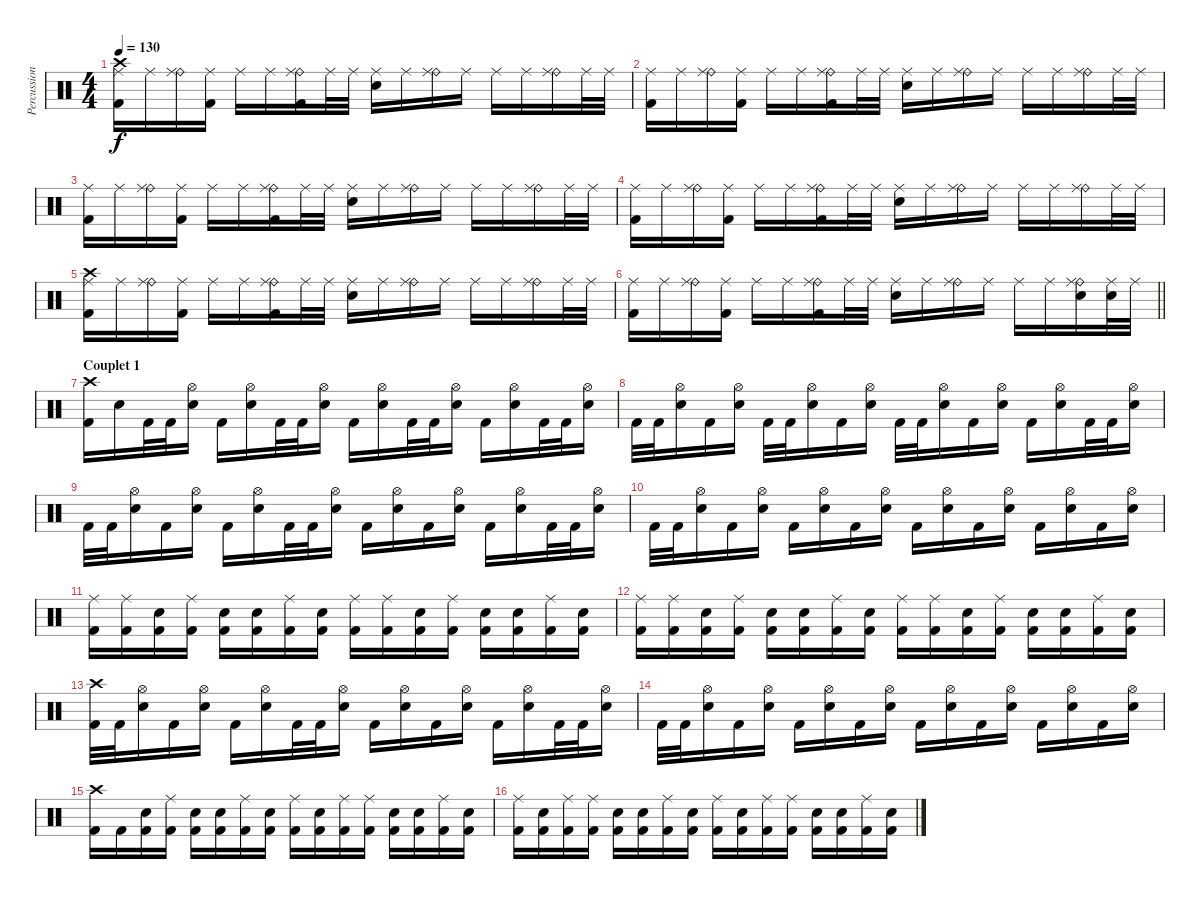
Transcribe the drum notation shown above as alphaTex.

\track ("Percussions" "Percussion") {instrument percussion}
\staff {score}
\articulation defaults
\ts (4 4)
\tempo 130
\clef neutral
\ks c
("Crash high (hit)" "Ride (middle)" "Kick (hit) 2").16{dy f} "Ride (middle)".16 ("Ride (bell)" "Ride (middle)").16 ("Ride (middle)" "Kick (hit) 2").16 "Ride (middle)".16 "Ride (middle)".16 ("Ride (bell)" "Ride (middle)" "Kick (hit) 2").16 "Ride (middle)".32 "Ride (middle)".32 ("Ride (middle)" "Electric Snare (hit)").16 "Ride (middle)".16 ("Ride (bell)" "Ride (middle)").16 "Ride (middle)".16 "Ride (middle)".16 "Ride (middle)".16 ("Ride (bell)" "Ride (middle)").16 "Ride (middle)".32 "Ride (middle)".32 |
("Ride (middle)" "Kick (hit) 2").16 "Ride (middle)".16 ("Ride (bell)" "Ride (middle)").16 ("Ride (middle)" "Kick (hit) 2").16 "Ride (middle)".16 "Ride (middle)".16 ("Ride (bell)" "Ride (middle)" "Kick (hit) 2").16 "Ride (middle)".32 "Ride (middle)".32 ("Ride (middle)" "Electric Snare (hit)").16 "Ride (middle)".16 ("Ride (bell)" "Ride (middle)").16 "Ride (middle)".16 "Ride (middle)".16 "Ride (middle)".16 ("Ride (bell)" "Ride (middle)").16 "Ride (middle)".32 "Ride (middle)".32 |
("Ride (middle)" "Kick (hit) 2").16 "Ride (middle)".16 ("Ride (bell)" "Ride (middle)").16 ("Ride (middle)" "Kick (hit) 2").16 "Ride (middle)".16 "Ride (middle)".16 ("Ride (bell)" "Ride (middle)" "Kick (hit) 2").16 "Ride (middle)".32 "Ride (middle)".32 ("Ride (middle)" "Electric Snare (hit)").16 "Ride (middle)".16 ("Ride (bell)" "Ride (middle)").16 "Ride (middle)".16 "Ride (middle)".16 "Ride (middle)".16 ("Ride (bell)" "Ride (middle)").16 "Ride (middle)".32 "Ride (middle)".32 |
("Ride (middle)" "Kick (hit) 2").16 "Ride (middle)".16 ("Ride (bell)" "Ride (middle)").16 ("Ride (middle)" "Kick (hit) 2").16 "Ride (middle)".16 "Ride (middle)".16 ("Ride (bell)" "Ride (middle)" "Kick (hit) 2").16 "Ride (middle)".32 "Ride (middle)".32 ("Ride (middle)" "Electric Snare (hit)").16 "Ride (middle)".16 ("Ride (bell)" "Ride (middle)").16 "Ride (middle)".16 "Ride (middle)".16 "Ride (middle)".16 ("Ride (bell)" "Ride (middle)").16 "Ride (middle)".32 "Ride (middle)".32 |
("Crash high (hit)" "Ride (middle)" "Kick (hit) 2").16 "Ride (middle)".16 ("Ride (bell)" "Ride (middle)").16 ("Ride (middle)" "Kick (hit) 2").16 "Ride (middle)".16 "Ride (middle)".16 ("Ride (bell)" "Ride (middle)" "Kick (hit) 2").16 "Ride (middle)".32 "Ride (middle)".32 ("Ride (middle)" "Electric Snare (hit)").16 "Ride (middle)".16 ("Ride (bell)" "Ride (middle)").16 "Ride (middle)".16 "Ride (middle)".16 "Ride (middle)".16 ("Ride (bell)" "Ride (middle)").16 "Ride (middle)".32 "Ride (middle)".32 |
\barLineRight lightlight
("Ride (middle)" "Kick (hit) 2").16 "Ride (middle)".16 ("Ride (bell)" "Ride (middle)").16 ("Ride (middle)" "Kick (hit) 2").16 "Ride (middle)".16 "Ride (middle)".16 ("Ride (bell)" "Ride (middle)" "Kick (hit) 2").16 "Ride (middle)".32 "Ride (middle)".32 ("Ride (middle)" "Electric Snare (hit)").16 "Ride (middle)".16 ("Ride (bell)" "Ride (middle)").16 "Ride (middle)".16 "Ride (middle)".16 "Ride (middle)".16 ("Ride (bell)" "Ride (middle)" "Electric Snare (hit)").16 ("Ride (middle)" "Electric Snare (hit)").32 "Ride (middle)".32 |
\section ("" "Couplet 1")
("Crash high (hit)" "Kick (hit) 2").16 "Electric Snare (hit)".16 "Kick (hit) 2".32 "Kick (hit) 2".32 ("Hi-Hat (open)" "Electric Snare (hit)").16 "Kick (hit) 2".16 ("Hi-Hat (open)" "Electric Snare (hit)").16 "Kick (hit) 2".32 "Kick (hit) 2".32 ("Hi-Hat (open)" "Electric Snare (hit)").16 "Kick (hit) 2".16 ("Hi-Hat (open)" "Electric Snare (hit)").16 "Kick (hit) 2".32 "Kick (hit) 2".32 ("Hi-Hat (open)" "Electric Snare (hit)").16 "Kick (hit) 2".16 ("Hi-Hat (open)" "Electric Snare (hit)").16 "Kick (hit) 2".32 "Kick (hit) 2".32 ("Hi-Hat (open)" "Electric Snare (hit)").16 |
"Kick (hit) 2".32 "Kick (hit) 2".32 ("Hi-Hat (open)" "Electric Snare (hit)").16 "Kick (hit) 2".16 ("Hi-Hat (open)" "Electric Snare (hit)").16 "Kick (hit) 2".32 "Kick (hit) 2".32 ("Hi-Hat (open)" "Electric Snare (hit)").16 "Kick (hit) 2".16 ("Hi-Hat (open)" "Electric Snare (hit)").16 "Kick (hit) 2".32 "Kick (hit) 2".32 ("Hi-Hat (open)" "Electric Snare (hit)").16 "Kick (hit) 2".16 ("Hi-Hat (open)" "Electric Snare (hit)").16 "Kick (hit) 2".16 ("Hi-Hat (open)" "Electric Snare (hit)").16 "Kick (hit) 2".32 "Kick (hit) 2".32 ("Hi-Hat (open)" "Electric Snare (hit)").16 |
"Kick (hit) 2".32 "Kick (hit) 2".32 ("Hi-Hat (open)" "Electric Snare (hit)").16 "Kick (hit) 2".16 ("Hi-Hat (open)" "Electric Snare (hit)").16 "Kick (hit) 2".16 ("Hi-Hat (open)" "Electric Snare (hit)").16 "Kick (hit) 2".32 "Kick (hit) 2".32 ("Hi-Hat (open)" "Electric Snare (hit)").16 "Kick (hit) 2".16 ("Hi-Hat (open)" "Electric Snare (hit)").16 "Kick (hit) 2".16 ("Hi-Hat (open)" "Electric Snare (hit)").16 "Kick (hit) 2".16 ("Hi-Hat (open)" "Electric Snare (hit)").16 "Kick (hit) 2".32 "Kick (hit) 2".32 ("Hi-Hat (open)" "Electric Snare (hit)").16 |
"Kick (hit) 2".32 "Kick (hit) 2".32 ("Hi-Hat (open)" "Electric Snare (hit)").16 "Kick (hit) 2".16 ("Hi-Hat (open)" "Electric Snare (hit)").16 "Kick (hit) 2".16 ("Hi-Hat (open)" "Electric Snare (hit)").16 "Kick (hit) 2".16 ("Hi-Hat (open)" "Electric Snare (hit)").16 "Kick (hit) 2".16 ("Hi-Hat (open)" "Electric Snare (hit)").16 "Kick (hit) 2".16 ("Hi-Hat (open)" "Electric Snare (hit)").16 "Kick (hit) 2".16 ("Hi-Hat (open)" "Electric Snare (hit)").16 "Kick (hit) 2".16 ("Hi-Hat (open)" "Electric Snare (hit)").16 |
("Ride (middle)" "Kick (hit) 2").16 ("Ride (middle)" "Kick (hit) 2").16 ("Electric Snare (hit)" "Kick (hit) 2").16 ("Ride (middle)" "Kick (hit) 2").16 ("Electric Snare (hit)" "Kick (hit) 2").16 ("Electric Snare (hit)" "Kick (hit) 2").16 ("Ride (middle)" "Kick (hit) 2").16 ("Electric Snare (hit)" "Kick (hit) 2").16 ("Ride (middle)" "Kick (hit) 2").16 ("Ride (middle)" "Kick (hit) 2").16 ("Electric Snare (hit)" "Kick (hit) 2").16 ("Ride (middle)" "Kick (hit) 2").16 ("Electric Snare (hit)" "Kick (hit) 2").16 ("Electric Snare (hit)" "Kick (hit) 2").16 ("Ride (middle)" "Kick (hit) 2").16 ("Electric Snare (hit)" "Kick (hit) 2").16 |
("Ride (middle)" "Kick (hit) 2").16 ("Ride (middle)" "Kick (hit) 2").16 ("Electric Snare (hit)" "Kick (hit) 2").16 ("Ride (middle)" "Kick (hit) 2").16 ("Electric Snare (hit)" "Kick (hit) 2").16 ("Electric Snare (hit)" "Kick (hit) 2").16 ("Ride (middle)" "Kick (hit) 2").16 ("Electric Snare (hit)" "Kick (hit) 2").16 ("Ride (middle)" "Kick (hit) 2").16 ("Ride (middle)" "Kick (hit) 2").16 ("Electric Snare (hit)" "Kick (hit) 2").16 ("Ride (middle)" "Kick (hit) 2").16 ("Electric Snare (hit)" "Kick (hit) 2").16 ("Electric Snare (hit)" "Kick (hit) 2").16 ("Ride (middle)" "Kick (hit) 2").16 ("Electric Snare (hit)" "Kick (hit) 2").16 |
("Crash high (hit)" "Kick (hit) 2").32 "Kick (hit) 2".32 ("Hi-Hat (open)" "Electric Snare (hit)").16 "Kick (hit) 2".16 ("Hi-Hat (open)" "Electric Snare (hit)").16 "Kick (hit) 2".16 ("Hi-Hat (open)" "Electric Snare (hit)").16 "Kick (hit) 2".32 "Kick (hit) 2".32 ("Hi-Hat (open)" "Electric Snare (hit)").16 "Kick (hit) 2".16 ("Hi-Hat (open)" "Electric Snare (hit)").16 "Kick (hit) 2".16 ("Hi-Hat (open)" "Electric Snare (hit)").16 "Kick (hit) 2".16 ("Hi-Hat (open)" "Electric Snare (hit)").16 "Kick (hit) 2".32 "Kick (hit) 2".32 ("Hi-Hat (open)" "Electric Snare (hit)").16 |
"Kick (hit) 2".32 "Kick (hit) 2".32 ("Hi-Hat (open)" "Electric Snare (hit)").16 "Kick (hit) 2".16 ("Hi-Hat (open)" "Electric Snare (hit)").16 "Kick (hit) 2".16 ("Hi-Hat (open)" "Electric Snare (hit)").16 "Kick (hit) 2".16 ("Hi-Hat (open)" "Electric Snare (hit)").16 "Kick (hit) 2".16 ("Hi-Hat (open)" "Electric Snare (hit)").16 "Kick (hit) 2".16 ("Hi-Hat (open)" "Electric Snare (hit)").16 "Kick (hit) 2".16 ("Hi-Hat (open)" "Electric Snare (hit)").16 "Kick (hit) 2".16 ("Hi-Hat (open)" "Electric Snare (hit)").16 |
("Crash high (hit)" "Kick (hit) 2").16 "Kick (hit) 2".16 ("Electric Snare (hit)" "Kick (hit) 2").16 ("Ride (middle)" "Kick (hit) 2").16 ("Electric Snare (hit)" "Kick (hit) 2").16 ("Electric Snare (hit)" "Kick (hit) 2").16 ("Ride (middle)" "Kick (hit) 2").16 ("Electric Snare (hit)" "Kick (hit) 2").16 ("Ride (middle)" "Kick (hit) 2").16 ("Electric Snare (hit)" "Kick (hit) 2").16 ("Ride (middle)" "Kick (hit) 2").16 ("Ride (middle)" "Kick (hit) 2").16 ("Electric Snare (hit)" "Kick (hit) 2").16 ("Electric Snare (hit)" "Kick (hit) 2").16 ("Ride (middle)" "Kick (hit) 2").16 ("Electric Snare (hit)" "Kick (hit) 2").16 |
("Ride (middle)" "Kick (hit) 2").16 ("Electric Snare (hit)" "Kick (hit) 2").16 ("Ride (middle)" "Kick (hit) 2").16 ("Ride (middle)" "Kick (hit) 2").16 ("Electric Snare (hit)" "Kick (hit) 2").16 ("Electric Snare (hit)" "Kick (hit) 2").16 ("Ride (middle)" "Kick (hit) 2").16 ("Electric Snare (hit)" "Kick (hit) 2").16 ("Ride (middle)" "Kick (hit) 2").16 ("Electric Snare (hit)" "Kick (hit) 2").16 ("Ride (middle)" "Kick (hit) 2").16 ("Ride (middle)" "Kick (hit) 2").16 ("Electric Snare (hit)" "Kick (hit) 2").16 ("Electric Snare (hit)" "Kick (hit) 2").16 ("Ride (middle)" "Kick (hit) 2").16 ("Electric Snare (hit)" "Kick (hit) 2").16
